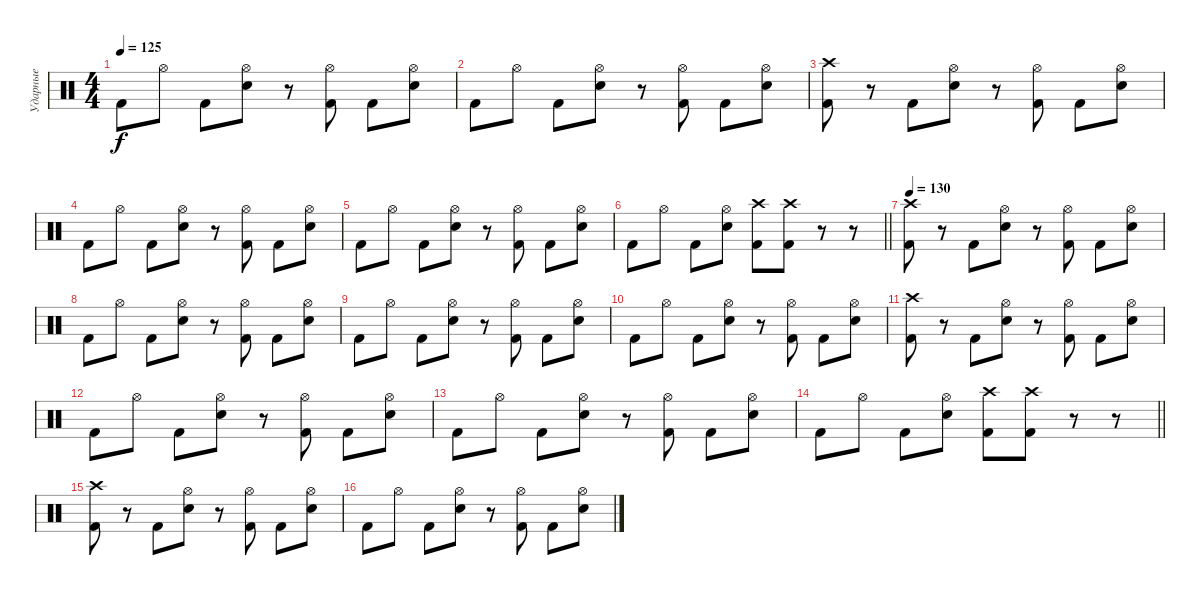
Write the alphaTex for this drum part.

\track ("Ударные" "Ударные") {instrument percussion}
\staff {score}
\articulation defaults
\ts (4 4)
\tempo 125
\clef neutral
\ks c "Kick (hit) 2".8{dy f} "Hi-Hat (open)".8 "Kick (hit) 2".8
("Hi-Hat (open)" "Snare (hit) 2").8 r.8 ("Hi-Hat (open)" "Kick (hit) 2").8 "Kick (hit) 2".8 ("Hi-Hat (open)" "Snare (hit) 2").8 |
"Kick (hit) 2".8 "Hi-Hat (open)".8 "Kick (hit) 2".8 ("Hi-Hat (open)" "Snare (hit) 2").8 r.8 ("Hi-Hat (open)" "Kick (hit) 2").8 "Kick (hit) 2".8 ("Hi-Hat (open)" "Snare (hit) 2").8 |
("Crash high (hit)" "Kick (hit) 2").8 r.8 "Kick (hit) 2".8 ("Hi-Hat (open)" "Snare (hit) 2").8 r.8 ("Hi-Hat (open)" "Kick (hit) 2").8 "Kick (hit) 2".8 ("Hi-Hat (open)" "Snare (hit) 2").8 |
"Kick (hit) 2".8 "Hi-Hat (open)".8 "Kick (hit) 2".8 ("Hi-Hat (open)" "Snare (hit) 2").8 r.8 ("Hi-Hat (open)" "Kick (hit) 2").8 "Kick (hit) 2".8 ("Hi-Hat (open)" "Snare (hit) 2").8 |
"Kick (hit) 2".8 "Hi-Hat (open)".8 "Kick (hit) 2".8 ("Hi-Hat (open)" "Snare (hit) 2").8 r.8 ("Hi-Hat (open)" "Kick (hit) 2").8 "Kick (hit) 2".8 ("Hi-Hat (open)" "Snare (hit) 2").8 |
\barLineRight lightlight "Kick (hit) 2".8 "Hi-Hat (open)".8 "Kick (hit) 2".8
("Hi-Hat (open)" "Snare (hit) 2").8 ("Crash high (hit)" "Kick (hit) 2").8 ("Crash high (hit)" "Kick (hit) 2").8 r.8 r.8 |
\tempo 130
("Crash high (hit)" "Kick (hit) 2").8 r.8 "Kick (hit) 2".8 ("Hi-Hat (open)" "Snare (hit) 2").8 r.8 ("Hi-Hat (open)" "Kick (hit) 2").8 "Kick (hit) 2".8 ("Hi-Hat (open)" "Snare (hit) 2").8 |
"Kick (hit) 2".8 "Hi-Hat (open)".8 "Kick (hit) 2".8 ("Hi-Hat (open)" "Snare (hit) 2").8 r.8 ("Hi-Hat (open)" "Kick (hit) 2").8 "Kick (hit) 2".8 ("Hi-Hat (open)" "Snare (hit) 2").8 |
"Kick (hit) 2".8 "Hi-Hat (open)".8 "Kick (hit) 2".8 ("Hi-Hat (open)" "Snare (hit) 2").8 r.8 ("Hi-Hat (open)" "Kick (hit) 2").8 "Kick (hit) 2".8 ("Hi-Hat (open)" "Snare (hit) 2").8 |
"Kick (hit) 2".8 "Hi-Hat (open)".8 "Kick (hit) 2".8 ("Hi-Hat (open)" "Snare (hit) 2").8 r.8 ("Hi-Hat (open)" "Kick (hit) 2").8 "Kick (hit) 2".8 ("Hi-Hat (open)" "Snare (hit) 2").8 |
("Crash high (hit)" "Kick (hit) 2").8 r.8 "Kick (hit) 2".8 ("Hi-Hat (open)" "Snare (hit) 2").8 r.8 ("Hi-Hat (open)" "Kick (hit) 2").8 "Kick (hit) 2".8 ("Hi-Hat (open)" "Snare (hit) 2").8 |
"Kick (hit) 2".8 "Hi-Hat (open)".8 "Kick (hit) 2".8 ("Hi-Hat (open)" "Snare (hit) 2").8 r.8 ("Hi-Hat (open)" "Kick (hit) 2").8 "Kick (hit) 2".8 ("Hi-Hat (open)" "Snare (hit) 2").8 |
"Kick (hit) 2".8 "Hi-Hat (open)".8 "Kick (hit) 2".8 ("Hi-Hat (open)" "Snare (hit) 2").8 r.8 ("Hi-Hat (open)" "Kick (hit) 2").8 "Kick (hit) 2".8 ("Hi-Hat (open)" "Snare (hit) 2").8 |
\barLineRight lightlight "Kick (hit) 2".8 "Hi-Hat (open)".8 "Kick (hit) 2".8
("Hi-Hat (open)" "Snare (hit) 2").8 ("Crash high (hit)" "Kick (hit) 2").8 ("Crash high (hit)" "Kick (hit) 2").8 r.8 r.8 |
("Crash high (hit)" "Kick (hit) 2").8 r.8 "Kick (hit) 2".8 ("Hi-Hat (open)" "Snare (hit) 2").8 r.8 ("Hi-Hat (open)" "Kick (hit) 2").8 "Kick (hit) 2".8 ("Hi-Hat (open)" "Snare (hit) 2").8 |
"Kick (hit) 2".8 "Hi-Hat (open)".8 "Kick (hit) 2".8 ("Hi-Hat (open)" "Snare (hit) 2").8 r.8 ("Hi-Hat (open)" "Kick (hit) 2").8 "Kick (hit) 2".8 ("Hi-Hat (open)" "Snare (hit) 2").8
